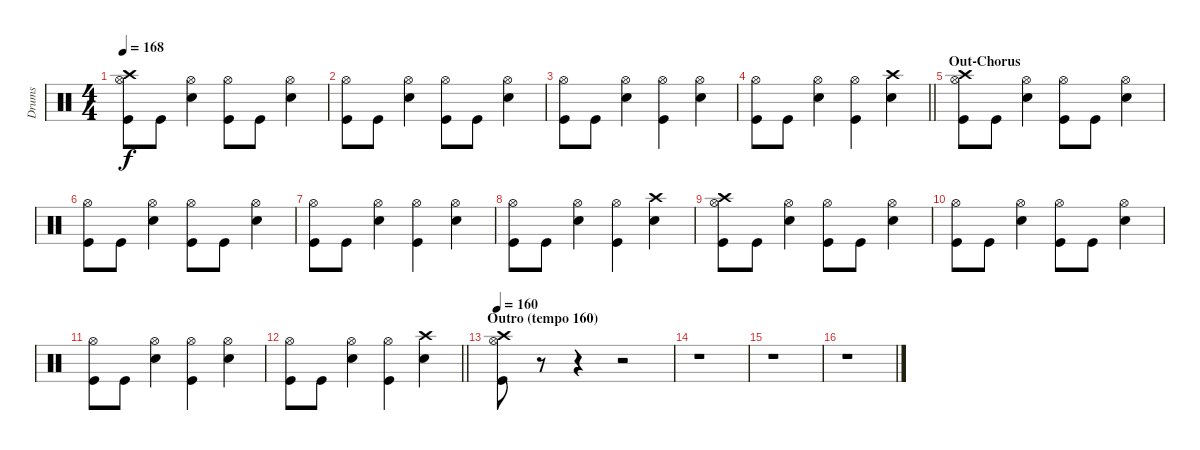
\track ("Drums" "Drums") {instrument percussion}
\staff {score}
\articulation defaults
\ts (4 4)
\tempo 168
\clef neutral
\ks c
("Crash high (hit)" "Hi-Hat (open)" "Kick (hit)").8{dy f} "Kick (hit)".8 ("Hi-Hat (open)" "Snare (hit) 2").4 ("Hi-Hat (open)" "Kick (hit)").8 "Kick (hit)".8 ("Hi-Hat (open)" "Snare (hit) 2").4 |
("Hi-Hat (open)" "Kick (hit)").8 "Kick (hit)".8 ("Hi-Hat (open)" "Snare (hit) 2").4 ("Hi-Hat (open)" "Kick (hit)").8 "Kick (hit)".8 ("Hi-Hat (open)" "Snare (hit) 2").4 |
("Hi-Hat (open)" "Kick (hit)").8 "Kick (hit)".8 ("Hi-Hat (open)" "Snare (hit) 2").4 ("Hi-Hat (open)" "Kick (hit)").4 ("Hi-Hat (open)" "Snare (hit) 2").4 |
\barLineRight lightlight
("Hi-Hat (open)" "Kick (hit)").8 "Kick (hit)".8 ("Hi-Hat (open)" "Snare (hit) 2").4 ("Hi-Hat (open)" "Kick (hit)").4 ("Crash high (hit)" "Snare (hit) 2").4 |
\section ("" "Out-Chorus")
("Crash high (hit)" "Hi-Hat (open)" "Kick (hit)").8 "Kick (hit)".8 ("Hi-Hat (open)" "Snare (hit) 2").4 ("Hi-Hat (open)" "Kick (hit)").8 "Kick (hit)".8 ("Hi-Hat (open)" "Snare (hit) 2").4 |
("Hi-Hat (open)" "Kick (hit)").8 "Kick (hit)".8 ("Hi-Hat (open)" "Snare (hit) 2").4 ("Hi-Hat (open)" "Kick (hit)").8 "Kick (hit)".8 ("Hi-Hat (open)" "Snare (hit) 2").4 |
("Hi-Hat (open)" "Kick (hit)").8 "Kick (hit)".8 ("Hi-Hat (open)" "Snare (hit) 2").4 ("Hi-Hat (open)" "Kick (hit)").4 ("Hi-Hat (open)" "Snare (hit) 2").4 |
("Hi-Hat (open)" "Kick (hit)").8 "Kick (hit)".8 ("Hi-Hat (open)" "Snare (hit) 2").4 ("Hi-Hat (open)" "Kick (hit)").4 ("Crash high (hit)" "Snare (hit) 2").4 |
("Crash high (hit)" "Hi-Hat (open)" "Kick (hit)").8 "Kick (hit)".8 ("Hi-Hat (open)" "Snare (hit) 2").4 ("Hi-Hat (open)" "Kick (hit)").8 "Kick (hit)".8 ("Hi-Hat (open)" "Snare (hit) 2").4 |
("Hi-Hat (open)" "Kick (hit)").8 "Kick (hit)".8 ("Hi-Hat (open)" "Snare (hit) 2").4 ("Hi-Hat (open)" "Kick (hit)").8 "Kick (hit)".8 ("Hi-Hat (open)" "Snare (hit) 2").4 |
("Hi-Hat (open)" "Kick (hit)").8 "Kick (hit)".8 ("Hi-Hat (open)" "Snare (hit) 2").4 ("Hi-Hat (open)" "Kick (hit)").4 ("Hi-Hat (open)" "Snare (hit) 2").4 |
\barLineRight lightlight
("Hi-Hat (open)" "Kick (hit)").8 "Kick (hit)".8 ("Hi-Hat (open)" "Snare (hit) 2").4 ("Hi-Hat (open)" "Kick (hit)").4 ("Crash high (hit)" "Snare (hit) 2").4 |
\section ("" "Outro (tempo 160)")
\tempo 160
("Crash high (hit)" "Hi-Hat (open)" "Kick (hit)").8 r.8 r.4 r.2 |
r.1 |
r.1 |
r.1
